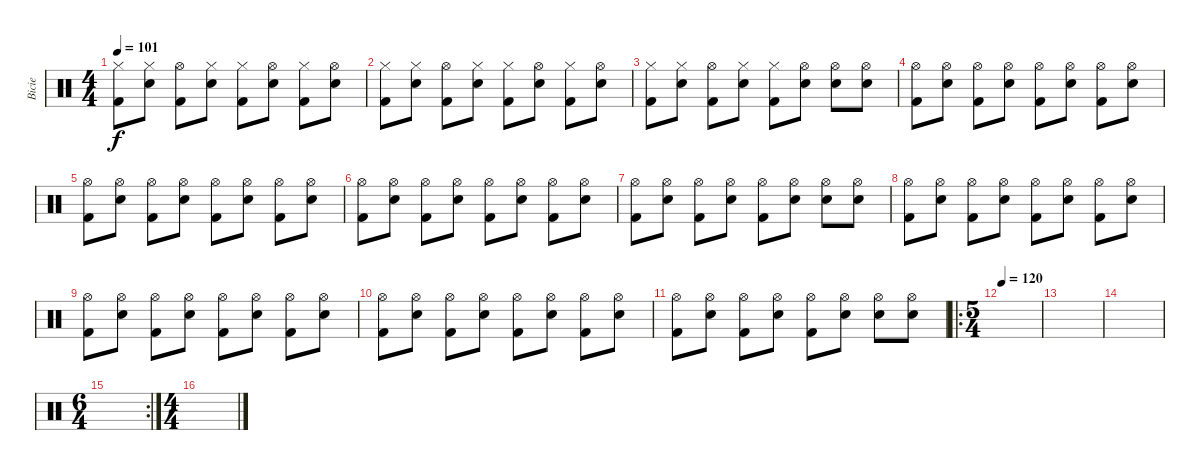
\track ("Bicie" "Bicie") {instrument percussion}
\staff {score}
\articulation defaults
\ts (4 4)
\tempo 101
\clef neutral
\ks c
("Hi-Hat (closed)" "Kick (hit) 2").8{dy f} ("Hi-Hat (closed)" "Snare (hit) 2").8 ("Hi-Hat (open)" "Kick (hit) 2").8 ("Hi-Hat (closed)" "Snare (hit) 2").8 ("Hi-Hat (closed)" "Kick (hit) 2").8 ("Hi-Hat (open)" "Snare (hit) 2").8 ("Hi-Hat (closed)" "Kick (hit) 2").8 ("Hi-Hat (open)" "Snare (hit) 2").8 |
("Hi-Hat (closed)" "Kick (hit) 2").8 ("Hi-Hat (closed)" "Snare (hit) 2").8 ("Hi-Hat (open)" "Kick (hit) 2").8 ("Hi-Hat (closed)" "Snare (hit) 2").8 ("Hi-Hat (closed)" "Kick (hit) 2").8 ("Hi-Hat (open)" "Snare (hit) 2").8 ("Hi-Hat (closed)" "Kick (hit) 2").8 ("Hi-Hat (open)" "Snare (hit) 2").8 |
("Hi-Hat (closed)" "Kick (hit) 2").8 ("Hi-Hat (closed)" "Snare (hit) 2").8 ("Hi-Hat (open)" "Kick (hit) 2").8 ("Hi-Hat (closed)" "Snare (hit) 2").8 ("Hi-Hat (closed)" "Kick (hit) 2").8 ("Hi-Hat (open)" "Snare (hit) 2").8 ("Hi-Hat (open)" "Snare (hit) 2").8 ("Hi-Hat (open)" "Snare (hit) 2").8 |
("Hi-Hat (open)" "Kick (hit) 2").8 ("Hi-Hat (open)" "Snare (hit) 2").8 ("Hi-Hat (open)" "Kick (hit) 2").8 ("Hi-Hat (open)" "Snare (hit) 2").8 ("Hi-Hat (open)" "Kick (hit) 2").8 ("Hi-Hat (open)" "Snare (hit) 2").8 ("Hi-Hat (open)" "Kick (hit) 2").8 ("Hi-Hat (open)" "Snare (hit) 2").8 |
("Hi-Hat (open)" "Kick (hit) 2").8 ("Hi-Hat (open)" "Snare (hit) 2").8 ("Hi-Hat (open)" "Kick (hit) 2").8 ("Hi-Hat (open)" "Snare (hit) 2").8 ("Hi-Hat (open)" "Kick (hit) 2").8 ("Hi-Hat (open)" "Snare (hit) 2").8 ("Hi-Hat (open)" "Kick (hit) 2").8 ("Hi-Hat (open)" "Snare (hit) 2").8 |
("Hi-Hat (open)" "Kick (hit) 2").8 ("Hi-Hat (open)" "Snare (hit) 2").8 ("Hi-Hat (open)" "Kick (hit) 2").8 ("Hi-Hat (open)" "Snare (hit) 2").8 ("Hi-Hat (open)" "Kick (hit) 2").8 ("Hi-Hat (open)" "Snare (hit) 2").8 ("Hi-Hat (open)" "Kick (hit) 2").8 ("Hi-Hat (open)" "Snare (hit) 2").8 |
("Hi-Hat (open)" "Kick (hit) 2").8 ("Hi-Hat (open)" "Snare (hit) 2").8 ("Hi-Hat (open)" "Kick (hit) 2").8 ("Hi-Hat (open)" "Snare (hit) 2").8 ("Hi-Hat (open)" "Kick (hit) 2").8 ("Hi-Hat (open)" "Snare (hit) 2").8 ("Hi-Hat (open)" "Snare (hit) 2").8 ("Hi-Hat (open)" "Snare (hit) 2").8 |
("Hi-Hat (open)" "Kick (hit) 2").8 ("Hi-Hat (open)" "Snare (hit) 2").8 ("Hi-Hat (open)" "Kick (hit) 2").8 ("Hi-Hat (open)" "Snare (hit) 2").8 ("Hi-Hat (open)" "Kick (hit) 2").8 ("Hi-Hat (open)" "Snare (hit) 2").8 ("Hi-Hat (open)" "Kick (hit) 2").8 ("Hi-Hat (open)" "Snare (hit) 2").8 |
("Hi-Hat (open)" "Kick (hit) 2").8 ("Hi-Hat (open)" "Snare (hit) 2").8 ("Hi-Hat (open)" "Kick (hit) 2").8 ("Hi-Hat (open)" "Snare (hit) 2").8 ("Hi-Hat (open)" "Kick (hit) 2").8 ("Hi-Hat (open)" "Snare (hit) 2").8 ("Hi-Hat (open)" "Kick (hit) 2").8 ("Hi-Hat (open)" "Snare (hit) 2").8 |
("Hi-Hat (open)" "Kick (hit) 2").8 ("Hi-Hat (open)" "Snare (hit) 2").8 ("Hi-Hat (open)" "Kick (hit) 2").8 ("Hi-Hat (open)" "Snare (hit) 2").8 ("Hi-Hat (open)" "Kick (hit) 2").8 ("Hi-Hat (open)" "Snare (hit) 2").8 ("Hi-Hat (open)" "Kick (hit) 2").8 ("Hi-Hat (open)" "Snare (hit) 2").8 |
("Hi-Hat (open)" "Kick (hit) 2").8 ("Hi-Hat (open)" "Snare (hit) 2").8 ("Hi-Hat (open)" "Kick (hit) 2").8 ("Hi-Hat (open)" "Snare (hit) 2").8 ("Hi-Hat (open)" "Kick (hit) 2").8 ("Hi-Hat (open)" "Snare (hit) 2").8 ("Hi-Hat (open)" "Snare (hit) 2").8 ("Hi-Hat (open)" "Snare (hit) 2").8 |
\ro
\ts (5 4)
\tempo 120
|
|
|
\rc 2
\ts (6 4)
|
\ts (4 4)
